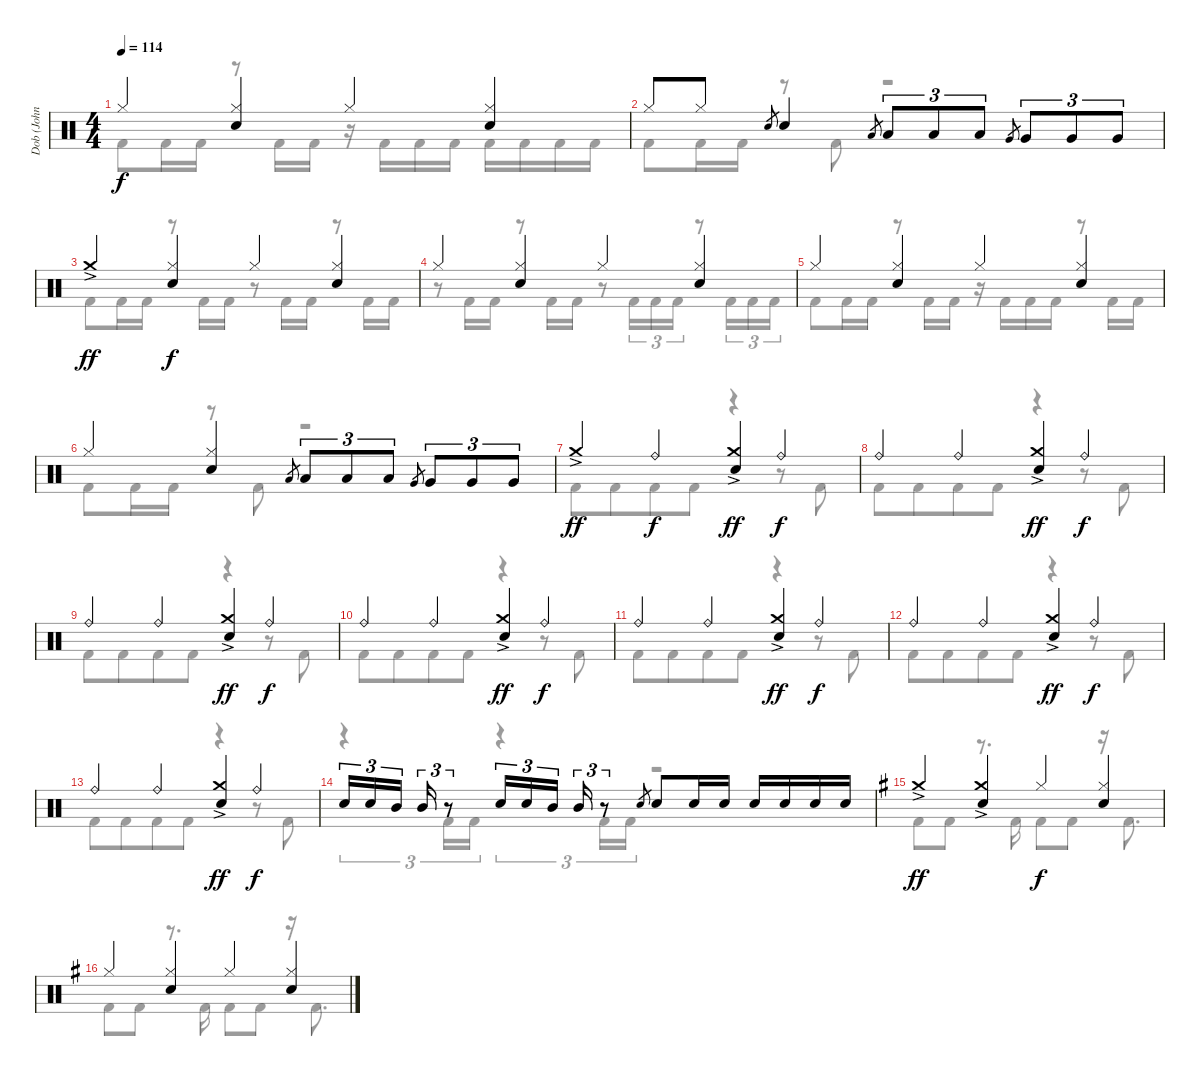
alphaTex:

\track ("Dob (John Macaluso)" "Dob (John ") {instrument percussion}
\staff {score}
\articulation defaults
\voice
\ts (4 4)
\tempo 114
\clef neutral
\ks c "Hi-Hat (closed)".4{dy f}
("Hi-Hat (closed)" "Electric Snare (hit)").4 "Hi-Hat (closed)".4 ("Hi-Hat (closed)" "Electric Snare (hit)").4 |
"Hi-Hat (closed)".8 "Hi-Hat (closed)".8 "Electric Snare (hit)".8{gr} "Electric Snare (hit)".4 "Low Tom (hit)".8{gr} "Low Tom (hit)".8{tu (3 2)} "Low Tom (hit)".8{tu (3 2)} "Low Tom (hit)".8{tu (3 2)} "Very Low Tom (hit)".8{gr} "Very Low Tom (hit)".8{tu (3 2)} "Very Low Tom (hit)".8{tu (3 2)} "Very Low Tom (hit)".8{tu (3 2)} |
"Crash medium (hit)"{ac}.4{dy ff} ("Hi-Hat (closed)" "Electric Snare (hit)").4{dy f} "Hi-Hat (closed)".4 ("Hi-Hat (closed)" "Electric Snare (hit)").4 |
"Hi-Hat (closed)".4 ("Hi-Hat (closed)" "Electric Snare (hit)").4 "Hi-Hat (closed)".4 ("Hi-Hat (closed)" "Electric Snare (hit)").4 |
"Hi-Hat (closed)".4 ("Hi-Hat (closed)" "Electric Snare (hit)").4 "Hi-Hat (closed)".4 ("Hi-Hat (closed)" "Electric Snare (hit)").4 |
"Hi-Hat (closed)".4 ("Hi-Hat (closed)" "Electric Snare (hit)").4 "Low Tom (hit)".8{gr} "Low Tom (hit)".8{tu (3 2)} "Low Tom (hit)".8{tu (3 2)} "Low Tom (hit)".8{tu (3 2)} "Very Low Tom (hit)".8{gr} "Very Low Tom (hit)".8{tu (3 2)} "Very Low Tom (hit)".8{tu (3 2)} "Very Low Tom (hit)".8{tu (3 2)} |
"Crash medium (hit)"{ac}.4{dy ff} "Ride (bell)".4{dy f} ("Crash medium (hit)"{ac} "Electric Snare (hit)").4{dy ff} "Ride (bell)".4{dy f} |
"Ride (bell)".4 "Ride (bell)".4 ("Crash medium (hit)"{ac} "Electric Snare (hit)").4{dy ff} "Ride (bell)".4{dy f} |
"Ride (bell)".4 "Ride (bell)".4 ("Crash medium (hit)"{ac} "Electric Snare (hit)").4{dy ff} "Ride (bell)".4{dy f} |
"Ride (bell)".4 "Ride (bell)".4 ("Crash medium (hit)"{ac} "Electric Snare (hit)").4{dy ff} "Ride (bell)".4{dy f} |
"Ride (bell)".4 "Ride (bell)".4 ("Crash medium (hit)"{ac} "Electric Snare (hit)").4{dy ff} "Ride (bell)".4{dy f} |
"Ride (bell)".4 "Ride (bell)".4 ("Crash medium (hit)"{ac} "Electric Snare (hit)").4{dy ff} "Ride (bell)".4{dy f} |
"Ride (bell)".4 "Ride (bell)".4 ("Crash medium (hit)"{ac} "Electric Snare (hit)").4{dy ff} "Ride (bell)".4{dy f} |
"Electric Snare (hit)".16{tu (3 2)} "Electric Snare (hit)".16{tu (3 2)} "Mid Tom (hit)".16{tu (3 2)} "Mid Tom (hit)".16{tu (3 2)} r.8{tu (3 2)} "Electric Snare (hit)".16{tu (3 2)} "Electric Snare (hit)".16{tu (3 2)} "Mid Tom (hit)".16{tu (3 2)} "Mid Tom (hit)".16{tu (3 2)} r.8{tu (3 2)} "Electric Snare (hit)".8{gr} "Electric Snare (hit)".8 "Electric Snare (hit)".16 "Electric Snare (hit)".16 "Electric Snare (hit)".16 "Electric Snare (hit)".16 "Electric Snare (hit)".16 "Electric Snare (hit)".16 |
\ks g "Crash medium (hit)"{ac}.4{dy ff}
("Crash medium (hit)"{ac} "Electric Snare (hit)").4 "Hi-Hat (closed)".4{dy f} ("Hi-Hat (closed)" "Electric Snare (hit)").4 |
"Hi-Hat (closed)".4 ("Hi-Hat (closed)" "Electric Snare (hit)").4 "Hi-Hat (closed)".4 ("Hi-Hat (closed)" "Electric Snare (hit)").4
\voice
\clef neutral
\ottava regular
\simile none
\ks c "Kick (hit) 2".8{dy f} "Kick (hit) 2".16 "Kick (hit) 2".16
r.8 "Kick (hit) 2".16 "Kick (hit) 2".16 r.16 "Kick (hit) 2".16 "Kick (hit) 2".16 "Kick (hit) 2".16 "Kick (hit) 2".16 "Kick (hit) 2".16 "Kick (hit) 2".16 "Kick (hit) 2".16 |
"Kick (hit) 2".8 "Kick (hit) 2".16 "Kick (hit) 2".16 r.8 "Kick (hit) 2".8 r.2 |
"Kick (hit) 2".8 "Kick (hit) 2".16 "Kick (hit) 2".16 r.8 "Kick (hit) 2".16 "Kick (hit) 2".16 r.8 "Kick (hit) 2".16 "Kick (hit) 2".16 r.8 "Kick (hit) 2".16 "Kick (hit) 2".16 |
r.8 "Kick (hit) 2".16 "Kick (hit) 2".16 r.8 "Kick (hit) 2".16 "Kick (hit) 2".16 r.8 "Kick (hit) 2".16{tu (3 2)} "Kick (hit) 2".16{tu (3 2)} "Kick (hit) 2".16{tu (3 2)} r.8 "Kick (hit) 2".16{tu (3 2)} "Kick (hit) 2".16{tu (3 2)} "Kick (hit) 2".16{tu (3 2)} |
"Kick (hit) 2".8 "Kick (hit) 2".16 "Kick (hit) 2".16 r.8 "Kick (hit) 2".16 "Kick (hit) 2".16 r.16 "Kick (hit) 2".16 "Kick (hit) 2".16 "Kick (hit) 2".16 r.8 "Kick (hit) 2".16 "Kick (hit) 2".16 |
"Kick (hit) 2".8 "Kick (hit) 2".16 "Kick (hit) 2".16 r.8 "Kick (hit) 2".8 r.2 |
"Kick (hit) 2".8 "Kick (hit) 2".8{beam merge} "Kick (hit) 2".8 "Kick (hit) 2".8 r.4 r.8 "Kick (hit) 2".8 |
"Kick (hit) 2".8 "Kick (hit) 2".8{beam merge} "Kick (hit) 2".8 "Kick (hit) 2".8 r.4 r.8 "Kick (hit) 2".8 |
"Kick (hit) 2".8 "Kick (hit) 2".8{beam merge} "Kick (hit) 2".8 "Kick (hit) 2".8 r.4 r.8 "Kick (hit) 2".8 |
"Kick (hit) 2".8 "Kick (hit) 2".8{beam merge} "Kick (hit) 2".8 "Kick (hit) 2".8 r.4 r.8 "Kick (hit) 2".8 |
"Kick (hit) 2".8 "Kick (hit) 2".8{beam merge} "Kick (hit) 2".8 "Kick (hit) 2".8 r.4 r.8 "Kick (hit) 2".8 |
"Kick (hit) 2".8 "Kick (hit) 2".8{beam merge} "Kick (hit) 2".8 "Kick (hit) 2".8 r.4 r.8 "Kick (hit) 2".8 |
"Kick (hit) 2".8 "Kick (hit) 2".8{beam merge} "Kick (hit) 2".8 "Kick (hit) 2".8 r.4 r.8 "Kick (hit) 2".8 |
r.4{tu (3 2)} "Kick (hit) 2".16{tu (3 2)} "Kick (hit) 2".16{tu (3 2)} r.4{tu (3 2)} "Kick (hit) 2".16{tu (3 2)} "Kick (hit) 2".16{tu (3 2)} r.2 |
\ks g "Kick (hit) 2".8 "Kick (hit) 2".8
r.8{d} "Kick (hit) 2".16 "Kick (hit) 2".8 "Kick (hit) 2".8 r.16 "Kick (hit) 2".8{d} |
"Kick (hit) 2".8 "Kick (hit) 2".8 r.8{d} "Kick (hit) 2".16 "Kick (hit) 2".8 "Kick (hit) 2".8 r.16 "Kick (hit) 2".8{d}
